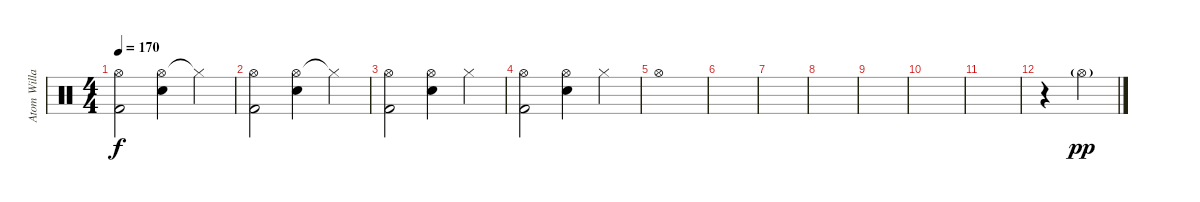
\track ("Atom Willard" "Atom Willa") {instrument percussion}
\staff {score}
\articulation defaults
\ts (4 4)
\tempo 170
\clef neutral
\ks c
("Hi-Hat (open)" "Kick (hit) 2").2{dy f} ("Hi-Hat (open)" "Electric Snare (hit)").4 "Hi-Hat (closed)"{t}.4 |
("Hi-Hat (open)" "Kick (hit) 2").2 ("Hi-Hat (open)" "Electric Snare (hit)").4 "Hi-Hat (closed)"{t}.4 |
("Hi-Hat (open)" "Kick (hit) 2").2 ("Hi-Hat (open)" "Electric Snare (hit)").4 "Hi-Hat (closed)".4 |
("Hi-Hat (open)" "Kick (hit) 2").2 ("Hi-Hat (open)" "Electric Snare (hit)").4 "Hi-Hat (closed)".4 |
"Hi-Hat (open)".1 |
|
|
|
|
|
|
r.4 "Hi-Hat (open)"{g}.4{dy pp}
